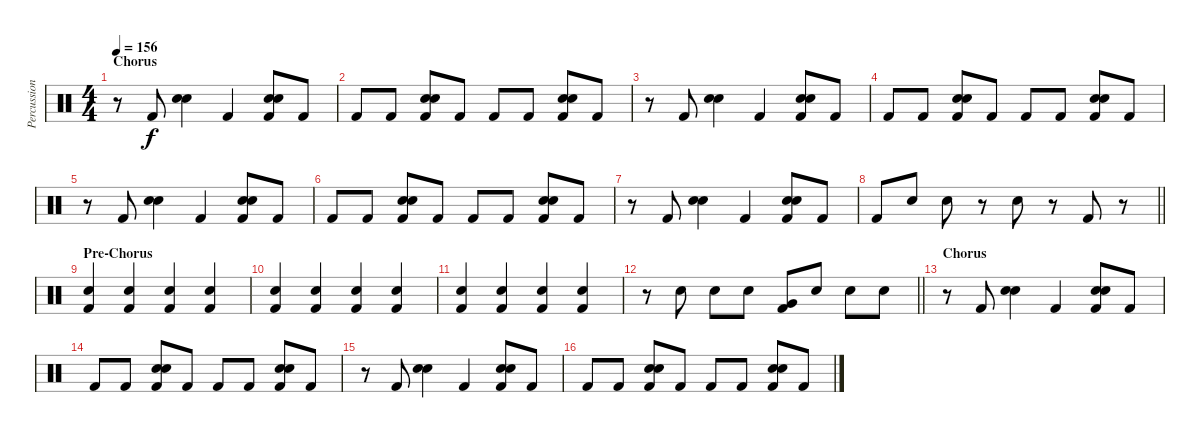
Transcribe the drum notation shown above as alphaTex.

\track ("Percussion" "Percussion") {instrument percussion}
\staff {score}
\articulation defaults
\ts (4 4)
\section ("" "Chorus")
\tempo 156
\clef neutral
\ks c
r.8{dy f} "Kick (hit) 2".8 ("Hand Clap (hit)" "Electric Snare (hit)").4 "Kick (hit) 2".4 ("Hand Clap (hit)" "Electric Snare (hit)" "Kick (hit) 2").8 "Kick (hit) 2".8 |
"Kick (hit) 2".8 "Kick (hit) 2".8 ("Hand Clap (hit)" "Electric Snare (hit)" "Kick (hit) 2").8 "Kick (hit) 2".8 "Kick (hit) 2".8 "Kick (hit) 2".8 ("Hand Clap (hit)" "Electric Snare (hit)" "Kick (hit) 2").8 "Kick (hit) 2".8 |
r.8 "Kick (hit) 2".8 ("Hand Clap (hit)" "Electric Snare (hit)").4 "Kick (hit) 2".4 ("Hand Clap (hit)" "Electric Snare (hit)" "Kick (hit) 2").8 "Kick (hit) 2".8 |
"Kick (hit) 2".8 "Kick (hit) 2".8 ("Hand Clap (hit)" "Electric Snare (hit)" "Kick (hit) 2").8 "Kick (hit) 2".8 "Kick (hit) 2".8 "Kick (hit) 2".8 ("Hand Clap (hit)" "Electric Snare (hit)" "Kick (hit) 2").8 "Kick (hit) 2".8 |
r.8 "Kick (hit) 2".8 ("Hand Clap (hit)" "Electric Snare (hit)").4 "Kick (hit) 2".4 ("Hand Clap (hit)" "Electric Snare (hit)" "Kick (hit) 2").8 "Kick (hit) 2".8 |
"Kick (hit) 2".8 "Kick (hit) 2".8 ("Hand Clap (hit)" "Electric Snare (hit)" "Kick (hit) 2").8 "Kick (hit) 2".8 "Kick (hit) 2".8 "Kick (hit) 2".8 ("Hand Clap (hit)" "Electric Snare (hit)" "Kick (hit) 2").8 "Kick (hit) 2".8 |
r.8 "Kick (hit) 2".8 ("Hand Clap (hit)" "Electric Snare (hit)").4 "Kick (hit) 2".4 ("Hand Clap (hit)" "Electric Snare (hit)" "Kick (hit) 2").8 "Kick (hit) 2".8 |
\barLineRight lightlight "Kick (hit) 2".8 "Electric Snare (hit)".8 "Electric Snare (hit)".8
r.8 "Electric Snare (hit)".8 r.8 "Kick (hit) 2".8 r.8 |
\section ("" "Pre-Chorus")
("Electric Snare (hit)" "Kick (hit) 2").4 ("Electric Snare (hit)" "Kick (hit) 2").4 ("Electric Snare (hit)" "Kick (hit) 2").4 ("Electric Snare (hit)" "Kick (hit) 2").4 |
("Electric Snare (hit)" "Kick (hit) 2").4 ("Electric Snare (hit)" "Kick (hit) 2").4 ("Electric Snare (hit)" "Kick (hit) 2").4 ("Electric Snare (hit)" "Kick (hit) 2").4 |
("Electric Snare (hit)" "Kick (hit) 2").4 ("Electric Snare (hit)" "Kick (hit) 2").4 ("Electric Snare (hit)" "Kick (hit) 2").4 ("Electric Snare (hit)" "Kick (hit) 2").4 |
\barLineRight lightlight
r.8 "Electric Snare (hit)".8 "Electric Snare (hit)".8 "Electric Snare (hit)".8 ("Very Low Tom (hit)" "Kick (hit) 2").8 "Electric Snare (hit)".8 "Electric Snare (hit)".8 "Electric Snare (hit)".8 |
\section ("" "Chorus")
r.8 "Kick (hit) 2".8 ("Hand Clap (hit)" "Electric Snare (hit)").4 "Kick (hit) 2".4 ("Hand Clap (hit)" "Electric Snare (hit)" "Kick (hit) 2").8 "Kick (hit) 2".8 |
"Kick (hit) 2".8 "Kick (hit) 2".8 ("Hand Clap (hit)" "Electric Snare (hit)" "Kick (hit) 2").8 "Kick (hit) 2".8 "Kick (hit) 2".8 "Kick (hit) 2".8 ("Hand Clap (hit)" "Electric Snare (hit)" "Kick (hit) 2").8 "Kick (hit) 2".8 |
r.8 "Kick (hit) 2".8 ("Hand Clap (hit)" "Electric Snare (hit)").4 "Kick (hit) 2".4 ("Hand Clap (hit)" "Electric Snare (hit)" "Kick (hit) 2").8 "Kick (hit) 2".8 |
"Kick (hit) 2".8 "Kick (hit) 2".8 ("Hand Clap (hit)" "Electric Snare (hit)" "Kick (hit) 2").8 "Kick (hit) 2".8 "Kick (hit) 2".8 "Kick (hit) 2".8 ("Hand Clap (hit)" "Electric Snare (hit)" "Kick (hit) 2").8 "Kick (hit) 2".8
